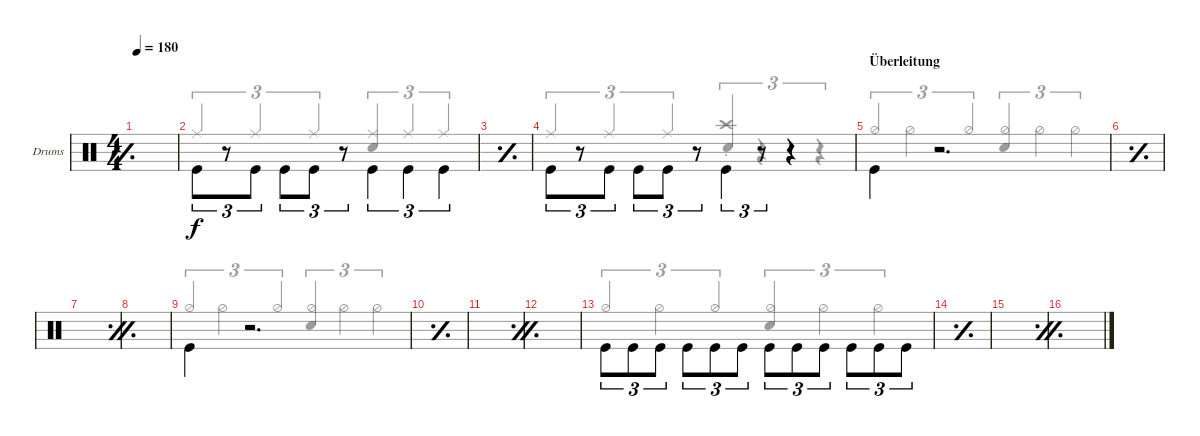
\defaultSystemsLayout 4
\bracketExtendMode groupsimilarinstruments
\multiBarRest
\firstSystemTrackNameOrientation horizontal
\otherSystemsTrackNameOrientation horizontal
\track ("Drumkit" "Drums") {instrument percussion}
\staff {score}
\articulation defaults
\voice
\ts (4 4)
\tempo 180
\clef neutral
\simile simple
\ks c
|
\simile none "Kick (hit)".8{tu (3 2)}
r.8{tu (3 2) beam invert} "Kick (hit)".8{tu (3 2) beam invert} "Kick (hit)".8{tu (3 2)} "Kick (hit)".8{tu (3 2) beam invert} r.8{tu (3 2) beam invert} "Kick (hit)".4{tu (3 2) beam invert} "Kick (hit)".4{tu (3 2) beam invert} "Kick (hit)".4{tu (3 2) beam invert} |
\simile simple
|
\simile none "Kick (hit)".8{tu (3 2)}
r.8{tu (3 2) beam invert} "Kick (hit)".8{tu (3 2) beam invert} "Kick (hit)".8{tu (3 2)} "Kick (hit)".8{tu (3 2) beam invert} r.8{tu (3 2) beam invert} "Kick (hit)".4{tu (3 2) beam invert} r.8{tu (3 2)} r.4 |
\section ("" "Überleitung")
"Kick (hit)".4{beam invert} r.2{d} |
\simile simple
|
\simile firstofdouble
|
\simile secondofdouble
|
\simile none "Kick (hit)".4{beam invert}
r.2{d} |
\simile simple
|
\simile firstofdouble
|
\simile secondofdouble
|
\simile none "Kick (hit)".8{tu (3 2) beam invert} "Kick (hit)".8{tu (3 2) beam invert} "Kick (hit)".8{tu (3 2) beam invert} "Kick (hit)".8{tu (3 2) beam invert} "Kick (hit)".8{tu (3 2) beam invert} "Kick (hit)".8{tu (3 2) beam invert} "Kick (hit)".8{tu (3 2) beam invert} "Kick (hit)".8{tu (3 2) beam invert} "Kick (hit)".8{tu (3 2) beam invert} "Kick (hit)".8{tu (3 2) beam invert} "Kick (hit)".8{tu (3 2) beam invert} "Kick (hit)".8{tu (3 2) beam invert}
|
\simile simple
|
\simile firstofdouble
|
\simile secondofdouble
\voice
\clef neutral
\ottava regular
\simile simple
\ks c
|
\simile none "Ride (middle)".4{tu (3 2) beam invert} "Ride (middle)".4{tu (3 2) beam invert} "Ride (middle)".4{tu (3 2) beam invert}
("Snare (hit) 2" "Ride (middle)").4{tu (3 2) beam invert} "Ride (middle)".4{tu (3 2) beam invert} "Ride (middle)".4{tu (3 2) beam invert} |
\simile simple
|
\simile none "Ride (middle)".4{tu (3 2) beam invert} "Ride (middle)".4{tu (3 2) beam invert} "Ride (middle)".4{tu (3 2) beam invert}
("Snare (hit) 2" "Crash high (hit)"{st}).4{tu (3 2) beam invert} r.4{tu (3 2)} r.4{tu (3 2)} |
"Hi-Hat (half)".4{tu (3 2) beam invert} "Hi-Hat (half)".4{tu (3 2)} "Hi-Hat (half)".4{tu (3 2)} ("Hi-Hat (half)" "Snare (hit) 2").4{tu (3 2) beam invert} "Hi-Hat (half)".4{tu (3 2)} "Hi-Hat (half)".4{tu (3 2)} |
\simile simple
|
\simile firstofdouble
|
\simile secondofdouble
|
\simile none "Hi-Hat (half)".4{tu (3 2) beam invert} "Hi-Hat (half)".4{tu (3 2)} "Hi-Hat (half)".4{tu (3 2)}
("Hi-Hat (half)" "Snare (hit) 2").4{tu (3 2) beam invert} "Hi-Hat (half)".4{tu (3 2)} "Hi-Hat (half)".4{tu (3 2)} |
\simile simple
|
\simile firstofdouble
|
\simile secondofdouble
|
\simile none "Hi-Hat (half)".4{tu (3 2) beam invert} "Hi-Hat (half)".4{tu (3 2)} "Hi-Hat (half)".4{tu (3 2)}
("Hi-Hat (half)" "Snare (hit) 2").4{tu (3 2) beam invert} "Hi-Hat (half)".4{tu (3 2)} "Hi-Hat (half)".4{tu (3 2)} |
\simile simple
|
\simile firstofdouble
|
\simile secondofdouble
